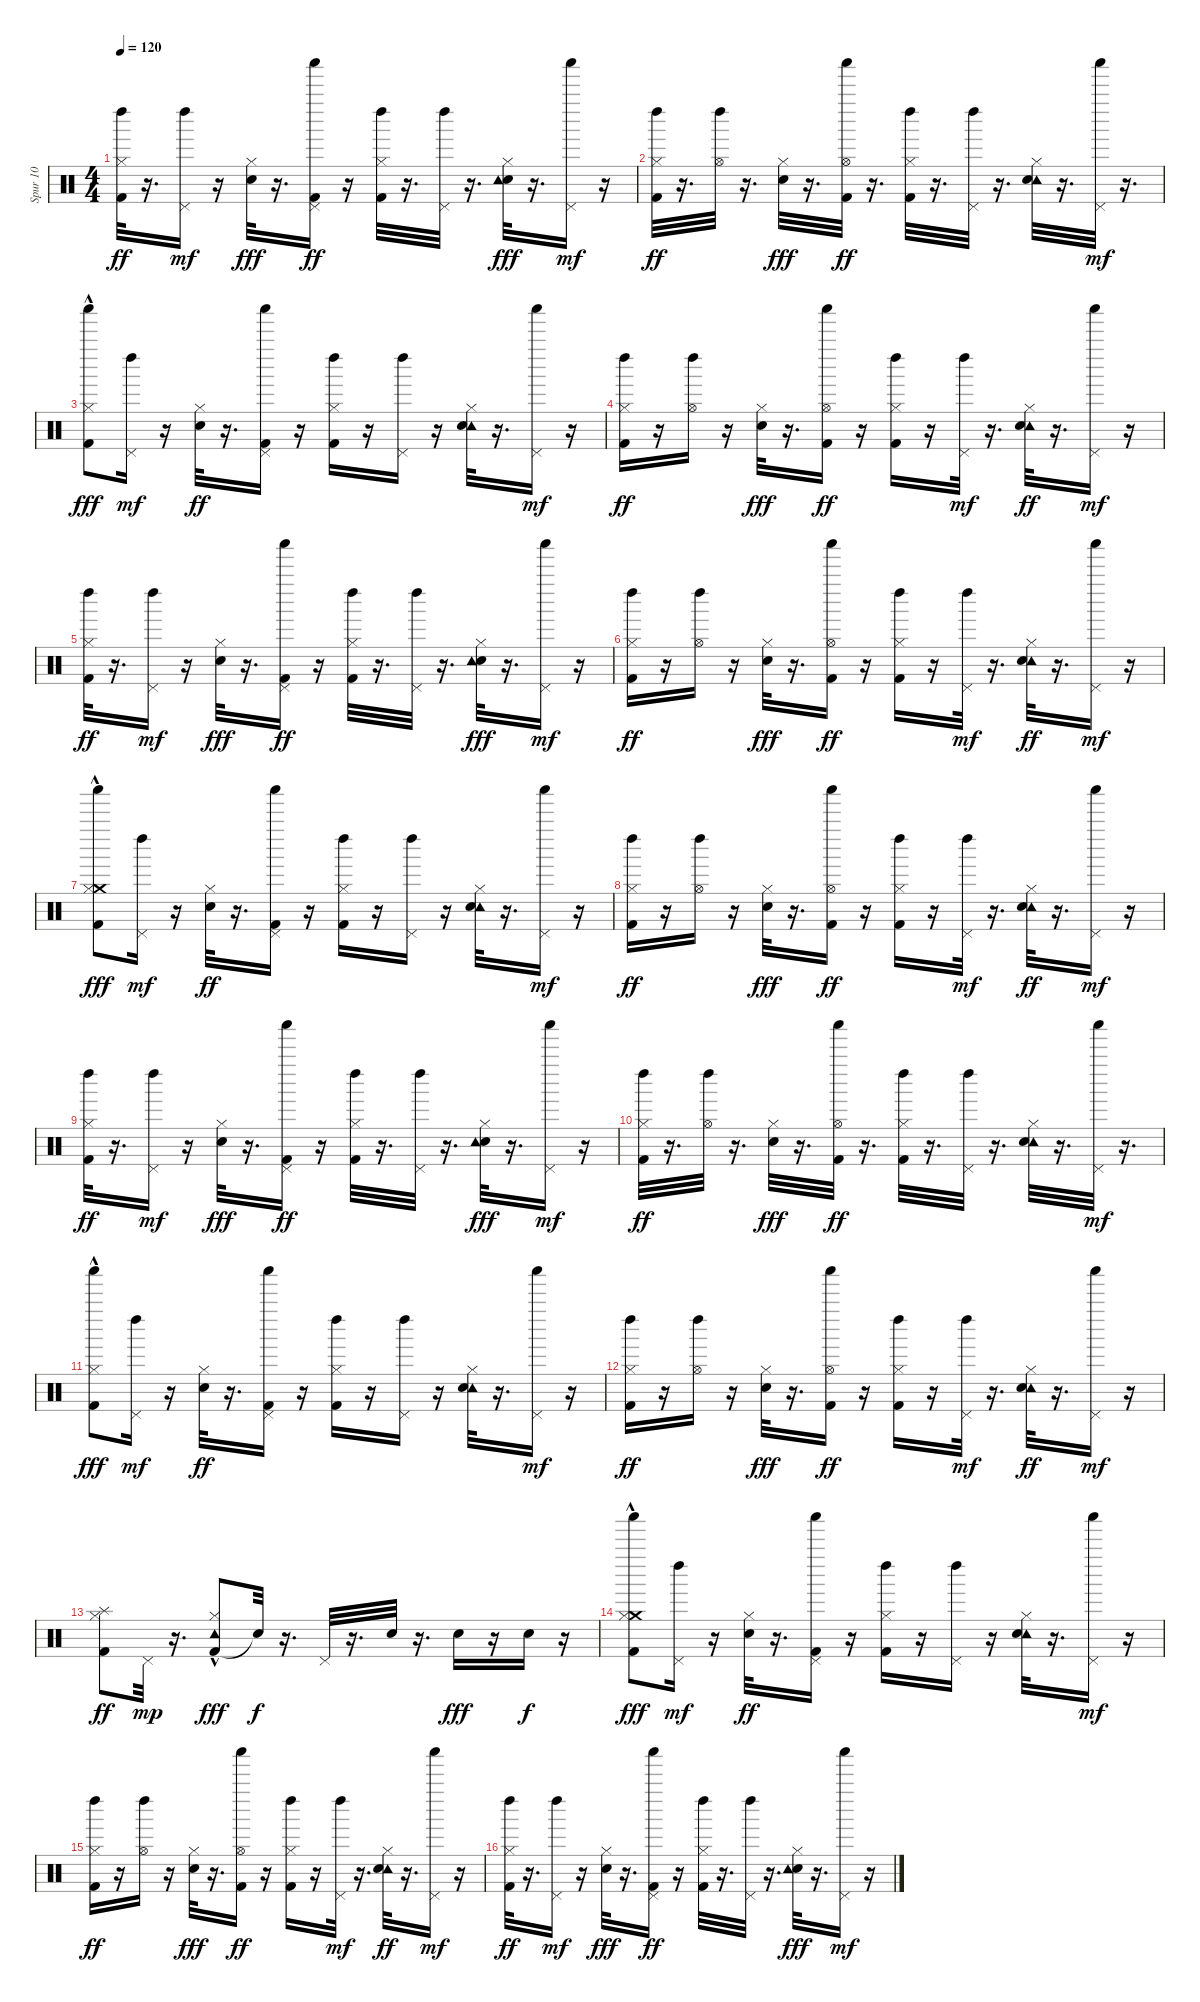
\track ("Spur 10" "Spur 10") {instrument percussion}
\staff {score}
\articulation defaults
\ts (4 4)
\tempo 120
\clef neutral
\ks c
("Kick (hit) 2" "Hi-Hat (closed)" "Left Maraca (hit)").32{dy ff} r.16{d} ("Left Maraca (hit)" "Pedal Hi-Hat (hit)").16{dy mf} r.16 ("Hi-Hat (closed)" "Electric Snare (hit)").32{dy fff} r.16{d} ("Shaker (hit)" "Kick (hit) 2" "Pedal Hi-Hat (hit)").16{dy ff} r.16 ("Left Maraca (hit)" "Hi-Hat (closed)" "Kick (hit) 2").32 r.16{d} ("Pedal Hi-Hat (hit)" "Left Maraca (hit)").32 r.16{d} ("Hi-Hat (closed)" "Electric Snare (hit)" "Tambourine (hit)").32{dy fff} r.16{d} ("Shaker (hit)" "Pedal Hi-Hat (hit)").16{dy mf} r.16 |
("Kick (hit) 2" "Hi-Hat (closed)" "Left Maraca (hit)").32{dy ff} r.16{d} ("Left Maraca (hit)" "Hi-Hat (open)").32 r.16{d} ("Electric Snare (hit)" "Hi-Hat (closed)").32{dy fff} r.16{d} ("Hi-Hat (open)" "Kick (hit) 2" "Shaker (hit)").32{dy ff} r.16{d} ("Left Maraca (hit)" "Hi-Hat (closed)" "Kick (hit) 2").32 r.16{d} ("Left Maraca (hit)" "Pedal Hi-Hat (hit)").32 r.16{d} ("Tambourine (hit)" "Electric Snare (hit)" "Hi-Hat (closed)").32 r.16{d} ("Pedal Hi-Hat (hit)" "Shaker (hit)").32{dy mf} r.16{d} |
("Shaker (hit)"{hac} "Kick (hit) 2" "Hi-Hat (closed)").8{dy fff} ("Left Maraca (hit)" "Pedal Hi-Hat (hit)").16{dy mf} r.16 ("Electric Snare (hit)" "Hi-Hat (closed)").32{dy ff} r.16{d} ("Shaker (hit)" "Kick (hit) 2" "Pedal Hi-Hat (hit)").16 r.16 ("Left Maraca (hit)" "Hi-Hat (closed)" "Kick (hit) 2").16 r.16 ("Left Maraca (hit)" "Pedal Hi-Hat (hit)").16 r.16 ("Tambourine (hit)" "Electric Snare (hit)" "Hi-Hat (closed)").32 r.16{d} ("Pedal Hi-Hat (hit)" "Shaker (hit)").16{dy mf} r.16 |
("Kick (hit) 2" "Hi-Hat (closed)" "Left Maraca (hit)").16{dy ff} r.16 ("Left Maraca (hit)" "Hi-Hat (open)").16 r.16 ("Hi-Hat (closed)" "Electric Snare (hit)").32{dy fff} r.16{d} ("Shaker (hit)" "Hi-Hat (open)" "Kick (hit) 2").16{dy ff} r.16 ("Left Maraca (hit)" "Hi-Hat (closed)" "Kick (hit) 2").16 r.16 ("Left Maraca (hit)" "Pedal Hi-Hat (hit)").32{dy mf} r.16{d} ("Tambourine (hit)" "Electric Snare (hit)" "Hi-Hat (closed)").32{dy ff} r.16{d} ("Shaker (hit)" "Pedal Hi-Hat (hit)").16{dy mf} r.16 |
("Kick (hit) 2" "Hi-Hat (closed)" "Left Maraca (hit)").32{dy ff} r.16{d} ("Left Maraca (hit)" "Pedal Hi-Hat (hit)").16{dy mf} r.16 ("Hi-Hat (closed)" "Electric Snare (hit)").32{dy fff} r.16{d} ("Shaker (hit)" "Kick (hit) 2" "Pedal Hi-Hat (hit)").16{dy ff} r.16 ("Left Maraca (hit)" "Hi-Hat (closed)" "Kick (hit) 2").32 r.16{d} ("Pedal Hi-Hat (hit)" "Left Maraca (hit)").32 r.16{d} ("Hi-Hat (closed)" "Electric Snare (hit)" "Tambourine (hit)").32{dy fff} r.16{d} ("Shaker (hit)" "Pedal Hi-Hat (hit)").16{dy mf} r.16 |
("Kick (hit) 2" "Hi-Hat (closed)" "Left Maraca (hit)").16{dy ff} r.16 ("Left Maraca (hit)" "Hi-Hat (open)").16 r.16 ("Hi-Hat (closed)" "Electric Snare (hit)").32{dy fff} r.16{d} ("Shaker (hit)" "Hi-Hat (open)" "Kick (hit) 2").16{dy ff} r.16 ("Left Maraca (hit)" "Hi-Hat (closed)" "Kick (hit) 2").16 r.16 ("Left Maraca (hit)" "Pedal Hi-Hat (hit)").32{dy mf} r.16{d} ("Tambourine (hit)" "Electric Snare (hit)" "Hi-Hat (closed)").32{dy ff} r.16{d} ("Shaker (hit)" "Pedal Hi-Hat (hit)").16{dy mf} r.16 |
("Crash medium (hit)" "Shaker (hit)"{hac} "Kick (hit) 2" "Hi-Hat (closed)").8{dy fff} ("Left Maraca (hit)" "Pedal Hi-Hat (hit)").16{dy mf} r.16 ("Electric Snare (hit)" "Hi-Hat (closed)").32{dy ff} r.16{d} ("Shaker (hit)" "Kick (hit) 2" "Pedal Hi-Hat (hit)").16 r.16 ("Left Maraca (hit)" "Hi-Hat (closed)" "Kick (hit) 2").16 r.16 ("Left Maraca (hit)" "Pedal Hi-Hat (hit)").16 r.16 ("Tambourine (hit)" "Electric Snare (hit)" "Hi-Hat (closed)").32 r.16{d} ("Pedal Hi-Hat (hit)" "Shaker (hit)").16{dy mf} r.16 |
("Kick (hit) 2" "Hi-Hat (closed)" "Left Maraca (hit)").16{dy ff} r.16 ("Left Maraca (hit)" "Hi-Hat (open)").16 r.16 ("Hi-Hat (closed)" "Electric Snare (hit)").32{dy fff} r.16{d} ("Shaker (hit)" "Hi-Hat (open)" "Kick (hit) 2").16{dy ff} r.16 ("Left Maraca (hit)" "Hi-Hat (closed)" "Kick (hit) 2").16 r.16 ("Left Maraca (hit)" "Pedal Hi-Hat (hit)").32{dy mf} r.16{d} ("Tambourine (hit)" "Electric Snare (hit)" "Hi-Hat (closed)").32{dy ff} r.16{d} ("Shaker (hit)" "Pedal Hi-Hat (hit)").16{dy mf} r.16 |
("Kick (hit) 2" "Hi-Hat (closed)" "Left Maraca (hit)").32{dy ff} r.16{d} ("Left Maraca (hit)" "Pedal Hi-Hat (hit)").16{dy mf} r.16 ("Hi-Hat (closed)" "Electric Snare (hit)").32{dy fff} r.16{d} ("Shaker (hit)" "Kick (hit) 2" "Pedal Hi-Hat (hit)").16{dy ff} r.16 ("Left Maraca (hit)" "Hi-Hat (closed)" "Kick (hit) 2").32 r.16{d} ("Pedal Hi-Hat (hit)" "Left Maraca (hit)").32 r.16{d} ("Hi-Hat (closed)" "Electric Snare (hit)" "Tambourine (hit)").32{dy fff} r.16{d} ("Shaker (hit)" "Pedal Hi-Hat (hit)").16{dy mf} r.16 |
("Kick (hit) 2" "Hi-Hat (closed)" "Left Maraca (hit)").32{dy ff} r.16{d} ("Left Maraca (hit)" "Hi-Hat (open)").32 r.16{d} ("Electric Snare (hit)" "Hi-Hat (closed)").32{dy fff} r.16{d} ("Hi-Hat (open)" "Kick (hit) 2" "Shaker (hit)").32{dy ff} r.16{d} ("Left Maraca (hit)" "Hi-Hat (closed)" "Kick (hit) 2").32 r.16{d} ("Left Maraca (hit)" "Pedal Hi-Hat (hit)").32 r.16{d} ("Tambourine (hit)" "Electric Snare (hit)" "Hi-Hat (closed)").32 r.16{d} ("Pedal Hi-Hat (hit)" "Shaker (hit)").32{dy mf} r.16{d} |
("Shaker (hit)"{hac} "Kick (hit) 2" "Hi-Hat (closed)").8{dy fff} ("Left Maraca (hit)" "Pedal Hi-Hat (hit)").16{dy mf} r.16 ("Electric Snare (hit)" "Hi-Hat (closed)").32{dy ff} r.16{d} ("Shaker (hit)" "Kick (hit) 2" "Pedal Hi-Hat (hit)").16 r.16 ("Left Maraca (hit)" "Hi-Hat (closed)" "Kick (hit) 2").16 r.16 ("Left Maraca (hit)" "Pedal Hi-Hat (hit)").16 r.16 ("Tambourine (hit)" "Electric Snare (hit)" "Hi-Hat (closed)").32 r.16{d} ("Pedal Hi-Hat (hit)" "Shaker (hit)").16{dy mf} r.16 |
("Kick (hit) 2" "Hi-Hat (closed)" "Left Maraca (hit)").16{dy ff} r.16 ("Left Maraca (hit)" "Hi-Hat (open)").16 r.16 ("Hi-Hat (closed)" "Electric Snare (hit)").32{dy fff} r.16{d} ("Shaker (hit)" "Hi-Hat (open)" "Kick (hit) 2").16{dy ff} r.16 ("Left Maraca (hit)" "Hi-Hat (closed)" "Kick (hit) 2").16 r.16 ("Left Maraca (hit)" "Pedal Hi-Hat (hit)").32{dy mf} r.16{d} ("Tambourine (hit)" "Electric Snare (hit)" "Hi-Hat (closed)").32{dy ff} r.16{d} ("Shaker (hit)" "Pedal Hi-Hat (hit)").16{dy mf} r.16 |
("Hi-Hat (closed)" "Splash (hit)" "Kick (hit) 2").8{dy ff} "Pedal Hi-Hat (hit)".32{dy mp} r.16{d} ("Kick (hit) 2" "Hi-Hat (closed)"{hac} "Tambourine (hit)").8{dy fff} "Snare (hit)"{t}.32{dy f} r.16{d} "Pedal Hi-Hat (hit)".32 r.16{d} "Electric Snare (hit)".32 r.16{d} "Electric Snare (hit)".16{dy fff} r.16 "Snare (hit) 2".16{dy f} r.16 |
("Crash medium (hit)" "Shaker (hit)"{hac} "Kick (hit) 2" "Hi-Hat (closed)").8{dy fff} ("Left Maraca (hit)" "Pedal Hi-Hat (hit)").16{dy mf} r.16 ("Electric Snare (hit)" "Hi-Hat (closed)").32{dy ff} r.16{d} ("Shaker (hit)" "Kick (hit) 2" "Pedal Hi-Hat (hit)").16 r.16 ("Left Maraca (hit)" "Hi-Hat (closed)" "Kick (hit) 2").16 r.16 ("Left Maraca (hit)" "Pedal Hi-Hat (hit)").16 r.16 ("Tambourine (hit)" "Electric Snare (hit)" "Hi-Hat (closed)").32 r.16{d} ("Pedal Hi-Hat (hit)" "Shaker (hit)").16{dy mf} r.16 |
("Kick (hit) 2" "Hi-Hat (closed)" "Left Maraca (hit)").16{dy ff} r.16 ("Left Maraca (hit)" "Hi-Hat (open)").16 r.16 ("Hi-Hat (closed)" "Electric Snare (hit)").32{dy fff} r.16{d} ("Shaker (hit)" "Hi-Hat (open)" "Kick (hit) 2").16{dy ff} r.16 ("Left Maraca (hit)" "Hi-Hat (closed)" "Kick (hit) 2").16 r.16 ("Left Maraca (hit)" "Pedal Hi-Hat (hit)").32{dy mf} r.16{d} ("Tambourine (hit)" "Electric Snare (hit)" "Hi-Hat (closed)").32{dy ff} r.16{d} ("Shaker (hit)" "Pedal Hi-Hat (hit)").16{dy mf} r.16 |
("Kick (hit) 2" "Hi-Hat (closed)" "Left Maraca (hit)").32{dy ff} r.16{d} ("Left Maraca (hit)" "Pedal Hi-Hat (hit)").16{dy mf} r.16 ("Hi-Hat (closed)" "Electric Snare (hit)").32{dy fff} r.16{d} ("Shaker (hit)" "Kick (hit) 2" "Pedal Hi-Hat (hit)").16{dy ff} r.16 ("Left Maraca (hit)" "Hi-Hat (closed)" "Kick (hit) 2").32 r.16{d} ("Pedal Hi-Hat (hit)" "Left Maraca (hit)").32 r.16{d} ("Hi-Hat (closed)" "Electric Snare (hit)" "Tambourine (hit)").32{dy fff} r.16{d} ("Shaker (hit)" "Pedal Hi-Hat (hit)").16{dy mf} r.16
